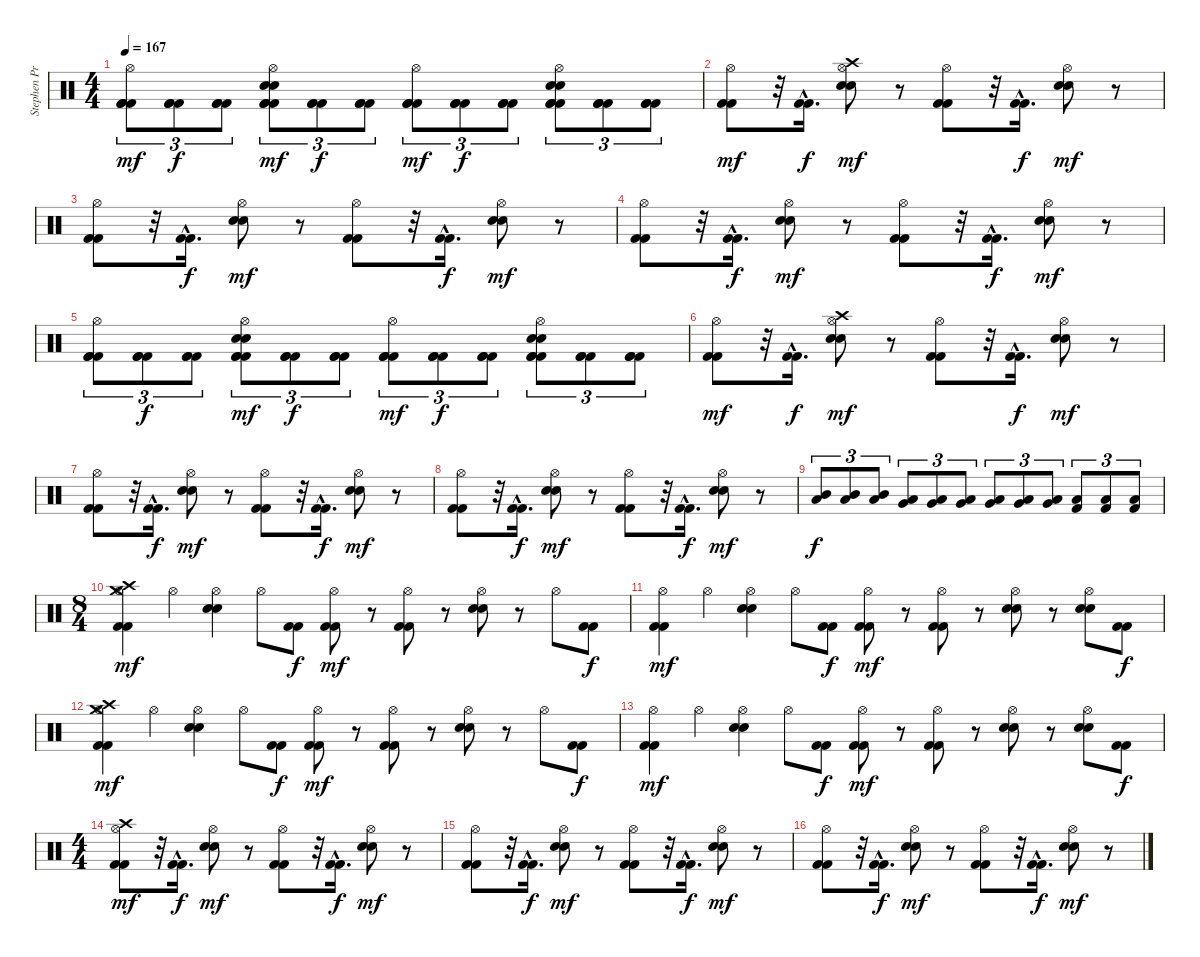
\track ("Stephen Priestly  (Drums)" "Stephen Pr") {instrument percussion}
\staff {score}
\articulation defaults
\ts (4 4)
\tempo 167
\clef neutral
\ks c
("Hi-Hat (open)" "Kick (hit) 2" "Kick (hit) 2" "Kick (hit) 2").8{tu (3 2) dy mf} ("Kick (hit) 2" "Kick (hit) 2" "Kick (hit) 2").8{tu (3 2) dy f} ("Kick (hit) 2" "Kick (hit) 2" "Kick (hit) 2").8{tu (3 2)} ("Electric Snare (hit)" "Hi-Hat (open)" "Electric Snare (hit)" "Kick (hit) 2" "Kick (hit) 2" "Kick (hit) 2").8{tu (3 2) dy mf} ("Kick (hit) 2" "Kick (hit) 2" "Kick (hit) 2").8{tu (3 2) dy f} ("Kick (hit) 2" "Kick (hit) 2" "Kick (hit) 2").8{tu (3 2)} ("Hi-Hat (open)" "Kick (hit) 2" "Kick (hit) 2" "Kick (hit) 2").8{tu (3 2) dy mf} ("Kick (hit) 2" "Kick (hit) 2" "Kick (hit) 2").8{tu (3 2) dy f} ("Kick (hit) 2" "Kick (hit) 2" "Kick (hit) 2").8{tu (3 2)} ("Electric Snare (hit)" "Hi-Hat (open)" "Electric Snare (hit)" "Kick (hit) 2" "Kick (hit) 2" "Kick (hit) 2").8{tu (3 2)} ("Kick (hit) 2" "Kick (hit) 2" "Kick (hit) 2").8{tu (3 2)} ("Kick (hit) 2" "Kick (hit) 2" "Kick (hit) 2").8{tu (3 2)} |
("Hi-Hat (open)" "Kick (hit) 2" "Kick (hit) 2").8{dy mf} r.32 ("Kick (hit) 2"{hac} "Kick (hit) 2"{hac}).16{d dy f} ("Crash high (hit)" "Hi-Hat (open)" "Electric Snare (hit)" "Electric Snare (hit)").8{dy mf} r.8 ("Hi-Hat (open)" "Kick (hit) 2" "Kick (hit) 2").8 r.32 ("Kick (hit) 2"{hac} "Kick (hit) 2"{hac}).16{d dy f} ("Hi-Hat (open)" "Electric Snare (hit)" "Electric Snare (hit)").8{dy mf} r.8 |
("Hi-Hat (open)" "Kick (hit) 2" "Kick (hit) 2").8 r.32 ("Kick (hit) 2"{hac} "Kick (hit) 2"{hac}).16{d dy f} ("Hi-Hat (open)" "Electric Snare (hit)" "Electric Snare (hit)").8{dy mf} r.8 ("Hi-Hat (open)" "Kick (hit) 2" "Kick (hit) 2").8 r.32 ("Kick (hit) 2"{hac} "Kick (hit) 2"{hac}).16{d dy f} ("Hi-Hat (open)" "Electric Snare (hit)" "Electric Snare (hit)").8{dy mf} r.8 |
("Hi-Hat (open)" "Kick (hit) 2" "Kick (hit) 2").8 r.32 ("Kick (hit) 2"{hac} "Kick (hit) 2"{hac}).16{d dy f} ("Hi-Hat (open)" "Electric Snare (hit)" "Electric Snare (hit)").8{dy mf} r.8 ("Hi-Hat (open)" "Kick (hit) 2" "Kick (hit) 2").8 r.32 ("Kick (hit) 2"{hac} "Kick (hit) 2"{hac}).16{d dy f} ("Hi-Hat (open)" "Electric Snare (hit)" "Electric Snare (hit)").8{dy mf} r.8 |
("Hi-Hat (open)" "Kick (hit) 2" "Kick (hit) 2" "Kick (hit) 2").8{tu (3 2)} ("Kick (hit) 2" "Kick (hit) 2" "Kick (hit) 2").8{tu (3 2) dy f} ("Kick (hit) 2" "Kick (hit) 2" "Kick (hit) 2").8{tu (3 2)} ("Electric Snare (hit)" "Hi-Hat (open)" "Electric Snare (hit)" "Kick (hit) 2" "Kick (hit) 2" "Kick (hit) 2").8{tu (3 2) dy mf} ("Kick (hit) 2" "Kick (hit) 2" "Kick (hit) 2").8{tu (3 2) dy f} ("Kick (hit) 2" "Kick (hit) 2" "Kick (hit) 2").8{tu (3 2)} ("Hi-Hat (open)" "Kick (hit) 2" "Kick (hit) 2" "Kick (hit) 2").8{tu (3 2) dy mf} ("Kick (hit) 2" "Kick (hit) 2" "Kick (hit) 2").8{tu (3 2) dy f} ("Kick (hit) 2" "Kick (hit) 2" "Kick (hit) 2").8{tu (3 2)} ("Electric Snare (hit)" "Hi-Hat (open)" "Electric Snare (hit)" "Kick (hit) 2" "Kick (hit) 2" "Kick (hit) 2").8{tu (3 2)} ("Kick (hit) 2" "Kick (hit) 2" "Kick (hit) 2").8{tu (3 2)} ("Kick (hit) 2" "Kick (hit) 2" "Kick (hit) 2").8{tu (3 2)} |
("Hi-Hat (open)" "Kick (hit) 2" "Kick (hit) 2").8{dy mf} r.32 ("Kick (hit) 2"{hac} "Kick (hit) 2"{hac}).16{d dy f} ("Crash high (hit)" "Hi-Hat (open)" "Electric Snare (hit)" "Electric Snare (hit)").8{dy mf} r.8 ("Hi-Hat (open)" "Kick (hit) 2" "Kick (hit) 2").8 r.32 ("Kick (hit) 2"{hac} "Kick (hit) 2"{hac}).16{d dy f} ("Hi-Hat (open)" "Electric Snare (hit)" "Electric Snare (hit)").8{dy mf} r.8 |
("Hi-Hat (open)" "Kick (hit) 2" "Kick (hit) 2").8 r.32 ("Kick (hit) 2"{hac} "Kick (hit) 2"{hac}).16{d dy f} ("Hi-Hat (open)" "Electric Snare (hit)" "Electric Snare (hit)").8{dy mf} r.8 ("Hi-Hat (open)" "Kick (hit) 2" "Kick (hit) 2").8 r.32 ("Kick (hit) 2"{hac} "Kick (hit) 2"{hac}).16{d dy f} ("Hi-Hat (open)" "Electric Snare (hit)" "Electric Snare (hit)").8{dy mf} r.8 |
("Hi-Hat (open)" "Kick (hit) 2" "Kick (hit) 2").8 r.32 ("Kick (hit) 2"{hac} "Kick (hit) 2"{hac}).16{d dy f} ("Hi-Hat (open)" "Electric Snare (hit)" "Electric Snare (hit)").8{dy mf} r.8 ("Hi-Hat (open)" "Kick (hit) 2" "Kick (hit) 2").8 r.32 ("Kick (hit) 2"{hac} "Kick (hit) 2"{hac}).16{d dy f} ("Hi-Hat (open)" "Electric Snare (hit)" "Electric Snare (hit)").8{dy mf} r.8 |
("Mid Tom (hit)" "Low Tom (hit)").8{tu (3 2) dy f} ("Mid Tom (hit)" "Low Tom (hit)").8{tu (3 2)} ("Mid Tom (hit)" "Low Tom (hit)").8{tu (3 2)} ("Low Tom (hit)" "Very Low Tom (hit)").8{tu (3 2)} ("Low Tom (hit)" "Very Low Tom (hit)").8{tu (3 2)} ("Low Tom (hit)" "Very Low Tom (hit)").8{tu (3 2)} ("Very Low Tom (hit)" "Low Floor Tom (hit)").8{tu (3 2)} ("Very Low Tom (hit)" "Low Floor Tom (hit)").8{tu (3 2)} ("Very Low Tom (hit)" "Low Floor Tom (hit)").8{tu (3 2)} ("Low Floor Tom (hit)" "Kick (hit) 2").8{tu (3 2)} ("Low Floor Tom (hit)" "Kick (hit) 2").8{tu (3 2)} ("Low Floor Tom (hit)" "Kick (hit) 2").8{tu (3 2)} |
\ts (8 4)
("Crash high (hit)" "Crash medium (hit)" "Hi-Hat (open)" "Kick (hit) 2" "Kick (hit) 2").4{dy mf} "Hi-Hat (open)".4 ("Hi-Hat (open)" "Electric Snare (hit)" "Electric Snare (hit)").4 "Hi-Hat (open)".8 ("Kick (hit) 2" "Kick (hit) 2").8{dy f} ("Hi-Hat (open)" "Kick (hit) 2" "Kick (hit) 2").8{dy mf} r.8 ("Hi-Hat (open)" "Kick (hit) 2" "Kick (hit) 2").8 r.8 ("Hi-Hat (open)" "Electric Snare (hit)" "Electric Snare (hit)").8 r.8 "Hi-Hat (open)".8 ("Kick (hit) 2" "Kick (hit) 2").8{dy f} |
("Hi-Hat (open)" "Kick (hit) 2" "Kick (hit) 2").4{dy mf} "Hi-Hat (open)".4 ("Hi-Hat (open)" "Electric Snare (hit)" "Electric Snare (hit)").4 "Hi-Hat (open)".8 ("Kick (hit) 2" "Kick (hit) 2").8{dy f} ("Hi-Hat (open)" "Kick (hit) 2" "Kick (hit) 2").8{dy mf} r.8 ("Hi-Hat (open)" "Kick (hit) 2" "Kick (hit) 2").8 r.8 ("Hi-Hat (open)" "Electric Snare (hit)" "Electric Snare (hit)").8 r.8 ("Hi-Hat (open)" "Electric Snare (hit)" "Electric Snare (hit)").8 ("Kick (hit) 2" "Kick (hit) 2").8{dy f} |
("Crash high (hit)" "Crash medium (hit)" "Hi-Hat (open)" "Kick (hit) 2" "Kick (hit) 2").4{dy mf} "Hi-Hat (open)".4 ("Hi-Hat (open)" "Electric Snare (hit)" "Electric Snare (hit)").4 "Hi-Hat (open)".8 ("Kick (hit) 2" "Kick (hit) 2").8{dy f} ("Hi-Hat (open)" "Kick (hit) 2" "Kick (hit) 2").8{dy mf} r.8 ("Hi-Hat (open)" "Kick (hit) 2" "Kick (hit) 2").8 r.8 ("Hi-Hat (open)" "Electric Snare (hit)" "Electric Snare (hit)").8 r.8 "Hi-Hat (open)".8 ("Kick (hit) 2" "Kick (hit) 2").8{dy f} |
("Hi-Hat (open)" "Kick (hit) 2" "Kick (hit) 2").4{dy mf} "Hi-Hat (open)".4 ("Hi-Hat (open)" "Electric Snare (hit)" "Electric Snare (hit)").4 "Hi-Hat (open)".8 ("Kick (hit) 2" "Kick (hit) 2").8{dy f} ("Hi-Hat (open)" "Kick (hit) 2" "Kick (hit) 2").8{dy mf} r.8 ("Hi-Hat (open)" "Kick (hit) 2" "Kick (hit) 2").8 r.8 ("Hi-Hat (open)" "Electric Snare (hit)" "Electric Snare (hit)").8 r.8 ("Hi-Hat (open)" "Electric Snare (hit)" "Electric Snare (hit)").8 ("Kick (hit) 2" "Kick (hit) 2").8{dy f} |
\ts (4 4)
("Crash high (hit)" "Hi-Hat (open)" "Kick (hit) 2" "Kick (hit) 2").8{dy mf} r.32 ("Kick (hit) 2"{hac} "Kick (hit) 2"{hac}).16{d dy f} ("Hi-Hat (open)" "Electric Snare (hit)" "Electric Snare (hit)").8{dy mf} r.8 ("Hi-Hat (open)" "Kick (hit) 2" "Kick (hit) 2").8 r.32 ("Kick (hit) 2"{hac} "Kick (hit) 2"{hac}).16{d dy f} ("Hi-Hat (open)" "Electric Snare (hit)" "Electric Snare (hit)").8{dy mf} r.8 |
("Hi-Hat (open)" "Kick (hit) 2" "Kick (hit) 2").8 r.32 ("Kick (hit) 2"{hac} "Kick (hit) 2"{hac}).16{d dy f} ("Hi-Hat (open)" "Electric Snare (hit)" "Electric Snare (hit)").8{dy mf} r.8 ("Hi-Hat (open)" "Kick (hit) 2" "Kick (hit) 2").8 r.32 ("Kick (hit) 2"{hac} "Kick (hit) 2"{hac}).16{d dy f} ("Hi-Hat (open)" "Electric Snare (hit)" "Electric Snare (hit)").8{dy mf} r.8 |
("Hi-Hat (open)" "Kick (hit) 2" "Kick (hit) 2").8 r.32 ("Kick (hit) 2"{hac} "Kick (hit) 2"{hac}).16{d dy f} ("Hi-Hat (open)" "Electric Snare (hit)" "Electric Snare (hit)").8{dy mf} r.8 ("Hi-Hat (open)" "Kick (hit) 2" "Kick (hit) 2").8 r.32 ("Kick (hit) 2"{hac} "Kick (hit) 2"{hac}).16{d dy f} ("Hi-Hat (open)" "Electric Snare (hit)" "Electric Snare (hit)").8{dy mf} r.8
